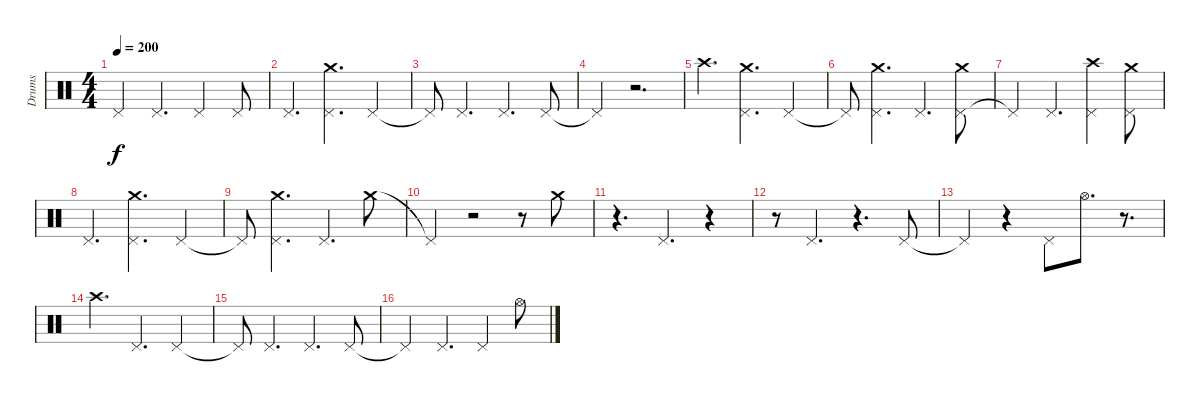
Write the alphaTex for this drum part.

\track ("Drums" "Drums") {instrument percussion}
\staff {score}
\articulation defaults
\ts (4 4)
\tempo 200
\clef neutral
\ks c "Pedal Hi-Hat (hit)"{t}.4{dy f} "Pedal Hi-Hat (hit)".4{d} "Pedal Hi-Hat (hit)".4 "Pedal Hi-Hat (hit)".8
|
"Pedal Hi-Hat (hit)".4{d} ("Pedal Hi-Hat (hit)" "Crash medium (hit)").4{d} "Pedal Hi-Hat (hit)".4 |
"Pedal Hi-Hat (hit)"{t}.8 "Pedal Hi-Hat (hit)".4{d} "Pedal Hi-Hat (hit)".4{d} "Pedal Hi-Hat (hit)".8 |
"Pedal Hi-Hat (hit)"{t}.4 r.2{d} |
"Crash high (hit)".4{d} ("Pedal Hi-Hat (hit)" "Crash medium (hit)").4{d} "Pedal Hi-Hat (hit)".4 |
"Pedal Hi-Hat (hit)"{t}.8 ("Pedal Hi-Hat (hit)" "Crash medium (hit)").4{d} "Pedal Hi-Hat (hit)".4{d} ("Pedal Hi-Hat (hit)" "Crash medium (hit)").8 |
"Pedal Hi-Hat (hit)"{t}.4 "Pedal Hi-Hat (hit)".4{d} ("Pedal Hi-Hat (hit)" "Crash high (hit)").4 ("Pedal Hi-Hat (hit)" "Crash medium (hit)").8 |
"Pedal Hi-Hat (hit)".4{d} ("Pedal Hi-Hat (hit)" "Crash medium (hit)").4{d} "Pedal Hi-Hat (hit)".4 |
"Pedal Hi-Hat (hit)"{t}.8 ("Pedal Hi-Hat (hit)" "Crash medium (hit)").4{d} "Pedal Hi-Hat (hit)".4{d} "Crash medium (hit)".8 |
"Pedal Hi-Hat (hit)"{t}.4 r.2 r.8 "Crash medium (hit)".8 |
r.4{d} "Pedal Hi-Hat (hit)".4{d} r.4 |
r.8 "Pedal Hi-Hat (hit)".4{d} r.4{d} "Pedal Hi-Hat (hit)".8 |
"Pedal Hi-Hat (hit)"{t}.4 r.4 "Pedal Hi-Hat (hit)".8 "Hi-Hat (open)".8{d} r.8{d} |
"Crash high (hit)".4{d} "Pedal Hi-Hat (hit)".4{d} "Pedal Hi-Hat (hit)".4 |
"Pedal Hi-Hat (hit)"{t}.8 "Pedal Hi-Hat (hit)".4{d} "Pedal Hi-Hat (hit)".4{d} "Pedal Hi-Hat (hit)".8 |
"Pedal Hi-Hat (hit)"{t}.4 "Pedal Hi-Hat (hit)".4{d} "Pedal Hi-Hat (hit)".4 "Hi-Hat (open)".8
